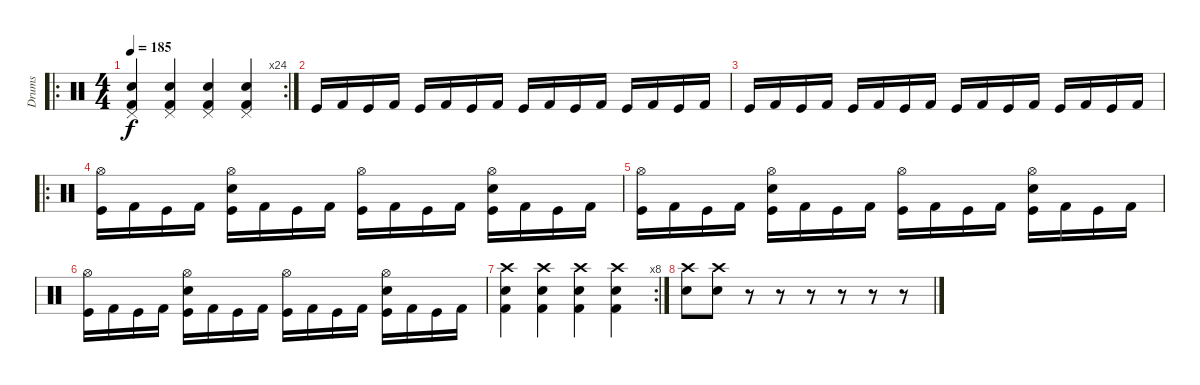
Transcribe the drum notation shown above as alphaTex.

\track ("Drums" "Drums") {instrument percussion}
\staff {score}
\articulation defaults
\ro
\rc 24
\ts (4 4)
\tempo 185
\clef neutral
\ks c
("Snare (hit) 2" "Kick (hit) 2" "Pedal Hi-Hat (hit)").4{dy f} ("Snare (hit) 2" "Kick (hit) 2" "Pedal Hi-Hat (hit)").4 ("Snare (hit) 2" "Kick (hit) 2" "Pedal Hi-Hat (hit)").4 ("Snare (hit) 2" "Kick (hit) 2" "Pedal Hi-Hat (hit)").4 |
"Kick (hit)".16 "Kick (hit) 2".16 "Kick (hit)".16 "Kick (hit) 2".16 "Kick (hit)".16 "Kick (hit) 2".16 "Kick (hit)".16 "Kick (hit) 2".16 "Kick (hit)".16 "Kick (hit) 2".16 "Kick (hit)".16 "Kick (hit) 2".16 "Kick (hit)".16 "Kick (hit) 2".16 "Kick (hit)".16 "Kick (hit) 2".16 |
"Kick (hit)".16 "Kick (hit) 2".16 "Kick (hit)".16 "Kick (hit) 2".16 "Kick (hit)".16 "Kick (hit) 2".16 "Kick (hit)".16 "Kick (hit) 2".16 "Kick (hit)".16 "Kick (hit) 2".16 "Kick (hit)".16 "Kick (hit) 2".16 "Kick (hit)".16 "Kick (hit) 2".16 "Kick (hit)".16 "Kick (hit) 2".16 |
\ro
("Kick (hit)" "Hi-Hat (open)").16 "Kick (hit) 2".16 "Kick (hit)".16 "Kick (hit) 2".16 ("Kick (hit)" "Snare (hit) 2" "Hi-Hat (open)").16 "Kick (hit) 2".16 "Kick (hit)".16 "Kick (hit) 2".16 ("Kick (hit)" "Hi-Hat (open)").16 "Kick (hit) 2".16 "Kick (hit)".16 "Kick (hit) 2".16 ("Kick (hit)" "Snare (hit) 2" "Hi-Hat (open)").16 "Kick (hit) 2".16 "Kick (hit)".16 "Kick (hit) 2".16 |
("Kick (hit)" "Hi-Hat (open)").16 "Kick (hit) 2".16 "Kick (hit)".16 "Kick (hit) 2".16 ("Kick (hit)" "Snare (hit) 2" "Hi-Hat (open)").16 "Kick (hit) 2".16 "Kick (hit)".16 "Kick (hit) 2".16 ("Kick (hit)" "Hi-Hat (open)").16 "Kick (hit) 2".16 "Kick (hit)".16 "Kick (hit) 2".16 ("Kick (hit)" "Snare (hit) 2" "Hi-Hat (open)").16 "Kick (hit) 2".16 "Kick (hit)".16 "Kick (hit) 2".16 |
("Kick (hit)" "Hi-Hat (open)").16 "Kick (hit) 2".16 "Kick (hit)".16 "Kick (hit) 2".16 ("Kick (hit)" "Snare (hit) 2" "Hi-Hat (open)").16 "Kick (hit) 2".16 "Kick (hit)".16 "Kick (hit) 2".16 ("Kick (hit)" "Hi-Hat (open)").16 "Kick (hit) 2".16 "Kick (hit)".16 "Kick (hit) 2".16 ("Kick (hit)" "Snare (hit) 2" "Hi-Hat (open)").16 "Kick (hit) 2".16 "Kick (hit)".16 "Kick (hit) 2".16 |
\rc 8
("Snare (hit) 2" "Kick (hit) 2" "Crash high (hit)").4 ("Snare (hit) 2" "Kick (hit) 2" "Crash high (hit)").4 ("Snare (hit) 2" "Kick (hit) 2" "Crash high (hit)").4 ("Snare (hit) 2" "Kick (hit) 2" "Crash high (hit)").4 |
("Snare (hit) 2" "Crash high (hit)").8 ("Snare (hit) 2" "Crash high (hit)").8 r.8 r.8 r.8 r.8 r.8 r.8
